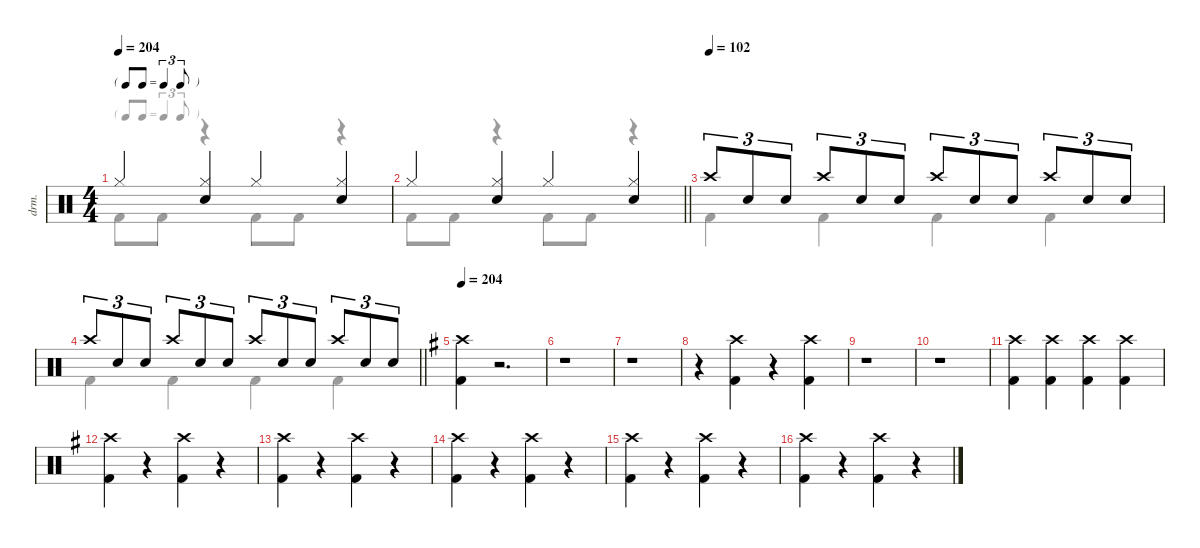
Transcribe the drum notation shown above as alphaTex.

\defaultSystemsLayout 4
\hideDynamics
\bracketExtendMode nobrackets
\otherSystemsTrackNameOrientation horizontal
\track ("Lars Ulrich" "drm.") {defaultSystemsLayout 8 instrument percussion}
\staff {score}
\articulation defaults
\voice
\ts (4 4)
\tf triplet8th
\tempo 204
\clef neutral
\ks aminor "Hi-Hat (closed)".4{dy f beam Up}
("Hi-Hat (closed)" "Snare (hit) 2").4{beam Up} "Hi-Hat (closed)".4{beam Up} ("Hi-Hat (closed)" "Snare (hit) 2").4{beam Up} |
\barLineRight lightlight "Hi-Hat (closed)".4{beam Up}
("Hi-Hat (closed)" "Snare (hit) 2").4{beam Up} "Hi-Hat (closed)".4{beam Up} ("Hi-Hat (closed)" "Snare (hit) 2").4{beam Up} |
\tempo (102)
"Crash high (hit)".8{tu (3 2) beam Up} "Snare (hit) 2".8{tu (3 2) beam Up} "Snare (hit) 2".8{tu (3 2) beam Up} "Crash high (hit)".8{tu (3 2) beam Up} "Snare (hit) 2".8{tu (3 2) beam Up} "Snare (hit) 2".8{tu (3 2) beam Up} "Crash high (hit)".8{tu (3 2) beam Up} "Snare (hit) 2".8{tu (3 2) beam Up} "Snare (hit) 2".8{tu (3 2) beam Up} "Crash high (hit)".8{tu (3 2) beam Up} "Snare (hit) 2".8{tu (3 2) beam Up} "Snare (hit) 2".8{tu (3 2) beam Up} |
\barLineRight lightlight "Crash high (hit)".8{tu (3 2) beam Up} "Snare (hit) 2".8{tu (3 2) beam Up} "Snare (hit) 2".8{tu (3 2) beam Up} "Crash high (hit)".8{tu (3 2) beam Up} "Snare (hit) 2".8{tu (3 2) beam Up} "Snare (hit) 2".8{tu (3 2) beam Up} "Crash high (hit)".8{tu (3 2) beam Up} "Snare (hit) 2".8{tu (3 2) beam Up} "Snare (hit) 2".8{tu (3 2) beam Up} "Crash high (hit)".8{tu (3 2) beam Up} "Snare (hit) 2".8{tu (3 2) beam Up} "Snare (hit) 2".8{tu (3 2) beam Up}
|
\tempo 204
\ks eminor
("Crash high (hit)"{acc forcenatural} "Kick (hit) 2"{acc forcenatural}).4{beam Down} r.2{d beam Down} |
r.1{beam Down} |
r.1{beam Down} |
r.4{beam Down} ("Crash high (hit)"{acc forcenatural} "Kick (hit) 2"{acc forcenatural}).4{beam Down} r.4{beam Down} ("Crash high (hit)"{acc forcenatural} "Kick (hit) 2"{acc forcenatural}).4{beam Down} |
r.1{beam Down} |
r.1{beam Down} |
("Crash high (hit)"{acc forcenatural} "Kick (hit) 2"{acc forcenatural}).4{beam Down} ("Crash high (hit)"{acc forcenatural} "Kick (hit) 2"{acc forcenatural}).4{beam Down} ("Crash high (hit)"{acc forcenatural} "Kick (hit) 2"{acc forcenatural}).4{beam Down} ("Crash high (hit)"{acc forcenatural} "Kick (hit) 2"{acc forcenatural}).4{beam Down} |
("Crash high (hit)"{acc forcenatural} "Kick (hit) 2"{acc forcenatural}).4{beam Down} r.4{beam Down} ("Crash high (hit)"{acc forcenatural} "Kick (hit) 2"{acc forcenatural}).4{beam Down} r.4{beam Down} |
("Crash high (hit)"{acc forcenatural} "Kick (hit) 2"{acc forcenatural}).4{beam Down} r.4{beam Down} ("Crash high (hit)"{acc forcenatural} "Kick (hit) 2"{acc forcenatural}).4{beam Down} r.4{beam Down} |
("Crash high (hit)"{acc forcenatural} "Kick (hit) 2"{acc forcenatural}).4{beam Down} r.4{beam Down} ("Crash high (hit)"{acc forcenatural} "Kick (hit) 2"{acc forcenatural}).4{beam Down} r.4{beam Down} |
("Crash high (hit)"{acc forcenatural} "Kick (hit) 2"{acc forcenatural}).4{beam Down} r.4{beam Down} ("Crash high (hit)"{acc forcenatural} "Kick (hit) 2"{acc forcenatural}).4{beam Down} r.4{beam Down} |
("Crash high (hit)"{acc forcenatural} "Kick (hit) 2"{acc forcenatural}).4{beam Down} r.4{beam Down} ("Crash high (hit)"{acc forcenatural} "Kick (hit) 2"{acc forcenatural}).4{beam Down} r.4{beam Down}
\voice
\clef neutral
\ottava regular
\simile none
\ks aminor "Kick (hit) 2".8{dy f beam Down} "Kick (hit) 2".8{beam Down}
r.4{beam Down} "Kick (hit) 2".8{beam Down} "Kick (hit) 2".8{beam Down} r.4{beam Down} |
\barLineRight lightlight "Kick (hit) 2".8{beam Down} "Kick (hit) 2".8{beam Down}
r.4{beam Down} "Kick (hit) 2".8{beam Down} "Kick (hit) 2".8{beam Down} r.4{beam Down} |
"Kick (hit) 2".4{beam Down} "Kick (hit) 2".4{beam Down} "Kick (hit) 2".4{beam Down} "Kick (hit) 2".4{beam Down} |
\barLineRight lightlight "Kick (hit) 2".4{beam Down} "Kick (hit) 2".4{beam Down} "Kick (hit) 2".4{beam Down} "Kick (hit) 2".4{beam Down}
|
\ks eminor
|
|
|
|
|
|
|
|
|
|
|
